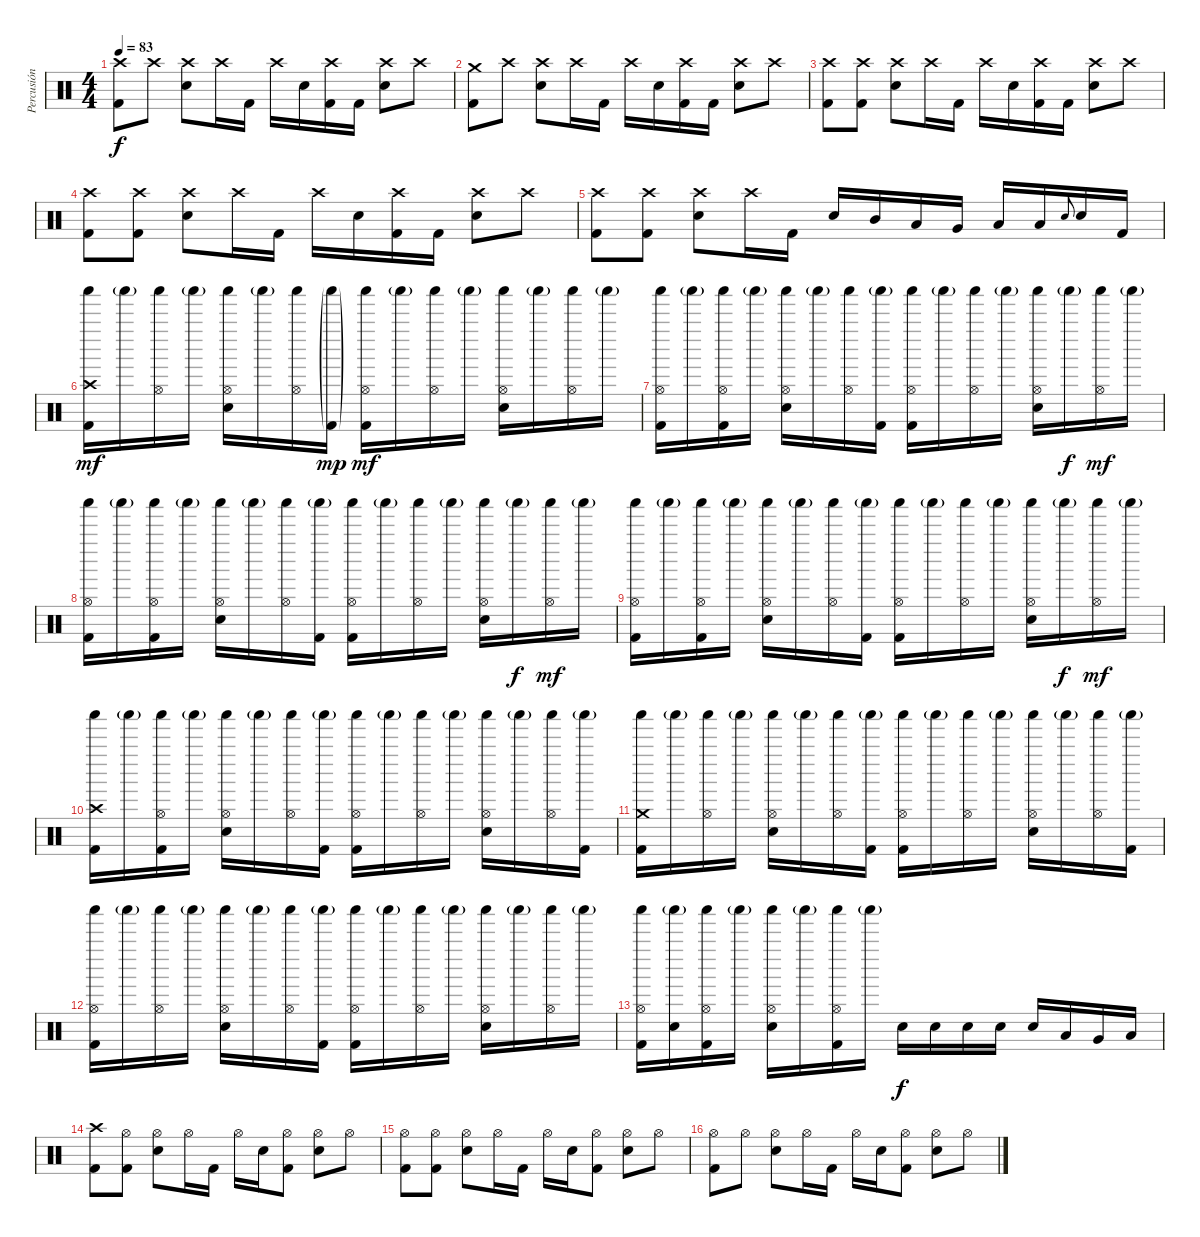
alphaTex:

\track ("Percusión" "Percusión") {instrument percussion}
\staff {score}
\articulation defaults
\ts (4 4)
\tempo 83
\clef neutral
\ks c
("Crash high (hit)" "Kick (hit) 2").8{dy f} "Crash high (hit)".8 ("Crash high (hit)" "Snare (hit) 2").8 "Crash high (hit)".16 "Kick (hit) 2".16 "Crash high (hit)".16 "Snare (hit) 2".16 ("Crash high (hit)" "Kick (hit) 2").16 "Kick (hit) 2".16 ("Crash high (hit)" "Snare (hit) 2").8 "Crash high (hit)".8 |
("Crash medium (hit)" "Kick (hit) 2").8 "Crash high (hit)".8 ("Crash high (hit)" "Snare (hit) 2").8 "Crash high (hit)".16 "Kick (hit) 2".16 "Crash high (hit)".16 "Snare (hit) 2".16 ("Crash high (hit)" "Kick (hit) 2").16 "Kick (hit) 2".16 ("Crash high (hit)" "Snare (hit) 2").8 "Crash high (hit)".8 |
("Crash high (hit)" "Kick (hit) 2").8 ("Crash high (hit)" "Kick (hit) 2").8 ("Crash high (hit)" "Snare (hit) 2").8 "Crash high (hit)".16 "Kick (hit) 2".16 "Crash high (hit)".16 "Snare (hit) 2".16 ("Crash high (hit)" "Kick (hit) 2").16 "Kick (hit) 2".16 ("Crash high (hit)" "Snare (hit) 2").8 "Crash high (hit)".8 |
("Crash high (hit)" "Kick (hit) 2").8 ("Crash high (hit)" "Kick (hit) 2").8 ("Crash high (hit)" "Snare (hit) 2").8 "Crash high (hit)".16 "Kick (hit) 2".16 "Crash high (hit)".16 "Snare (hit) 2".16 ("Crash high (hit)" "Kick (hit) 2").16 "Kick (hit) 2".16 ("Crash high (hit)" "Snare (hit) 2").8 "Crash high (hit)".8 |
("Crash high (hit)" "Kick (hit) 2").8 ("Crash high (hit)" "Kick (hit) 2").8 ("Crash high (hit)" "Snare (hit) 2").8 "Crash high (hit)".16 "Kick (hit) 2".16 "Snare (hit) 2".16 "Mid Tom (hit)".16 "Low Tom (hit)".16 "Very Low Tom (hit)".16 "Low Floor Tom (hit)".16 "Low Floor Tom (hit)".16 "Snare (hit) 2".8{gr onbeat} "Snare (hit) 2".16 "Kick (hit) 2".16 |
("Crash high (hit)" "Shaker (hit)" "Kick (hit) 2").16{dy mf} "Shaker (hit)"{g}.16 ("Shaker (hit)" "Hi-Hat (open)").16 "Shaker (hit)"{g}.16 ("Shaker (hit)" "Hi-Hat (open)" "Snare (hit) 2").16 "Shaker (hit)"{g}.16 ("Shaker (hit)" "Hi-Hat (open)").16 ("Shaker (hit)"{g} "Kick (hit) 2"{g}).16{dy mp} ("Shaker (hit)" "Hi-Hat (open)" "Kick (hit) 2").16{dy mf} "Shaker (hit)"{g}.16 ("Shaker (hit)" "Hi-Hat (open)").16 "Shaker (hit)"{g}.16 ("Shaker (hit)" "Hi-Hat (open)" "Snare (hit) 2").16 "Shaker (hit)"{g}.16 ("Shaker (hit)" "Hi-Hat (open)").16 "Shaker (hit)"{g}.16 |
("Shaker (hit)" "Hi-Hat (open)" "Kick (hit) 2").16 "Shaker (hit)"{g}.16 ("Shaker (hit)" "Hi-Hat (open)" "Kick (hit) 2").16 "Shaker (hit)"{g}.16 ("Shaker (hit)" "Hi-Hat (open)" "Snare (hit) 2").16 "Shaker (hit)"{g}.16 ("Shaker (hit)" "Hi-Hat (open)").16 ("Shaker (hit)"{g} "Kick (hit) 2").16 ("Shaker (hit)" "Hi-Hat (open)" "Kick (hit) 2").16 "Shaker (hit)"{g}.16 ("Shaker (hit)" "Hi-Hat (open)").16 "Shaker (hit)"{g}.16 ("Shaker (hit)" "Hi-Hat (open)" "Snare (hit) 2").16 "Shaker (hit)"{g}.16{dy f} ("Shaker (hit)" "Hi-Hat (open)").16{dy mf} "Shaker (hit)"{g}.16 |
("Shaker (hit)" "Hi-Hat (open)" "Kick (hit) 2").16 "Shaker (hit)"{g}.16 ("Shaker (hit)" "Hi-Hat (open)" "Kick (hit) 2").16 "Shaker (hit)"{g}.16 ("Shaker (hit)" "Hi-Hat (open)" "Snare (hit) 2").16 "Shaker (hit)"{g}.16 ("Shaker (hit)" "Hi-Hat (open)").16 ("Shaker (hit)"{g} "Kick (hit) 2").16 ("Shaker (hit)" "Hi-Hat (open)" "Kick (hit) 2").16 "Shaker (hit)"{g}.16 ("Shaker (hit)" "Hi-Hat (open)").16 "Shaker (hit)"{g}.16 ("Shaker (hit)" "Hi-Hat (open)" "Snare (hit) 2").16 "Shaker (hit)"{g}.16{dy f} ("Shaker (hit)" "Hi-Hat (open)").16{dy mf} "Shaker (hit)"{g}.16 |
("Shaker (hit)" "Hi-Hat (open)" "Kick (hit) 2").16 "Shaker (hit)"{g}.16 ("Shaker (hit)" "Hi-Hat (open)" "Kick (hit) 2").16 "Shaker (hit)"{g}.16 ("Shaker (hit)" "Hi-Hat (open)" "Snare (hit) 2").16 "Shaker (hit)"{g}.16 ("Shaker (hit)" "Hi-Hat (open)").16 ("Shaker (hit)"{g} "Kick (hit) 2").16 ("Shaker (hit)" "Hi-Hat (open)" "Kick (hit) 2").16 "Shaker (hit)"{g}.16 ("Shaker (hit)" "Hi-Hat (open)").16 "Shaker (hit)"{g}.16 ("Shaker (hit)" "Hi-Hat (open)" "Snare (hit) 2").16 "Shaker (hit)"{g}.16{dy f} ("Shaker (hit)" "Hi-Hat (open)").16{dy mf} "Shaker (hit)"{g}.16 |
("Crash high (hit)" "Shaker (hit)" "Kick (hit) 2").16 "Shaker (hit)"{g}.16 ("Shaker (hit)" "Hi-Hat (open)" "Kick (hit) 2").16 "Shaker (hit)"{g}.16 ("Shaker (hit)" "Hi-Hat (open)" "Snare (hit) 2").16 "Shaker (hit)"{g}.16 ("Shaker (hit)" "Hi-Hat (open)").16 ("Shaker (hit)"{g} "Kick (hit) 2").16 ("Shaker (hit)" "Hi-Hat (open)" "Kick (hit) 2").16 "Shaker (hit)"{g}.16 ("Shaker (hit)" "Hi-Hat (open)").16 "Shaker (hit)"{g}.16 ("Shaker (hit)" "Hi-Hat (open)" "Snare (hit) 2").16 "Shaker (hit)"{g}.16 ("Shaker (hit)" "Hi-Hat (open)").16 ("Shaker (hit)"{g} "Kick (hit) 2").16 |
("Crash medium (hit)" "Shaker (hit)" "Kick (hit) 2").16 "Shaker (hit)"{g}.16 ("Shaker (hit)" "Hi-Hat (open)").16 "Shaker (hit)"{g}.16 ("Shaker (hit)" "Hi-Hat (open)" "Snare (hit) 2").16 "Shaker (hit)"{g}.16 ("Shaker (hit)" "Hi-Hat (open)").16 ("Shaker (hit)"{g} "Kick (hit) 2").16 ("Shaker (hit)" "Hi-Hat (open)" "Kick (hit) 2").16 "Shaker (hit)"{g}.16 ("Shaker (hit)" "Hi-Hat (open)").16 "Shaker (hit)"{g}.16 ("Shaker (hit)" "Hi-Hat (open)" "Snare (hit) 2").16 "Shaker (hit)"{g}.16 ("Shaker (hit)" "Hi-Hat (open)").16 ("Shaker (hit)"{g} "Kick (hit) 2").16 |
("Shaker (hit)" "Hi-Hat (open)" "Kick (hit) 2").16 "Shaker (hit)"{g}.16 ("Shaker (hit)" "Hi-Hat (open)").16 "Shaker (hit)"{g}.16 ("Shaker (hit)" "Hi-Hat (open)" "Snare (hit) 2").16 "Shaker (hit)"{g}.16 ("Shaker (hit)" "Hi-Hat (open)").16 ("Shaker (hit)"{g} "Kick (hit) 2").16 ("Shaker (hit)" "Hi-Hat (open)" "Kick (hit) 2").16 "Shaker (hit)"{g}.16 ("Shaker (hit)" "Hi-Hat (open)").16 "Shaker (hit)"{g}.16 ("Shaker (hit)" "Hi-Hat (open)" "Snare (hit) 2").16 "Shaker (hit)"{g}.16 ("Shaker (hit)" "Hi-Hat (open)").16 "Shaker (hit)"{g}.16 |
("Shaker (hit)" "Hi-Hat (open)" "Kick (hit) 2").16 ("Shaker (hit)"{g} "Snare (hit) 2").16 ("Shaker (hit)" "Hi-Hat (open)" "Kick (hit) 2").16 "Shaker (hit)"{g}.16 ("Shaker (hit)" "Hi-Hat (open)" "Snare (hit) 2").16 "Shaker (hit)"{g}.16 ("Shaker (hit)" "Hi-Hat (open)" "Kick (hit) 2").16 "Shaker (hit)"{g}.16 "Snare (hit) 2".16{dy f} "Snare (hit) 2".16 "Snare (hit) 2".16 "Snare (hit) 2".16 "Snare (hit) 2".16 "Low Tom (hit)".16 "Very Low Tom (hit)".16 "Low Floor Tom (hit)".16 |
("Crash high (hit)" "Kick (hit) 2").8 ("Hi-Hat (open)" "Kick (hit) 2").8 ("Hi-Hat (open)" "Snare (hit) 2").8 "Hi-Hat (open)".16 "Kick (hit) 2".16 "Hi-Hat (open)".16 "Snare (hit) 2".16 ("Hi-Hat (open)" "Kick (hit) 2").8 ("Hi-Hat (open)" "Snare (hit) 2").8 "Hi-Hat (open)".8 |
("Hi-Hat (open)" "Kick (hit) 2").8 ("Hi-Hat (open)" "Kick (hit) 2").8 ("Hi-Hat (open)" "Snare (hit) 2").8 "Hi-Hat (open)".16 "Kick (hit) 2".16 "Hi-Hat (open)".16 "Snare (hit) 2".16 ("Hi-Hat (open)" "Kick (hit) 2").8 ("Hi-Hat (open)" "Snare (hit) 2").8 "Hi-Hat (open)".8 |
("Hi-Hat (open)" "Kick (hit) 2").8 "Hi-Hat (open)".8 ("Hi-Hat (open)" "Snare (hit) 2").8 "Hi-Hat (open)".16 "Kick (hit) 2".16 "Hi-Hat (open)".16 "Snare (hit) 2".16 ("Hi-Hat (open)" "Kick (hit) 2").8 ("Hi-Hat (open)" "Snare (hit) 2").8 "Hi-Hat (open)".8
